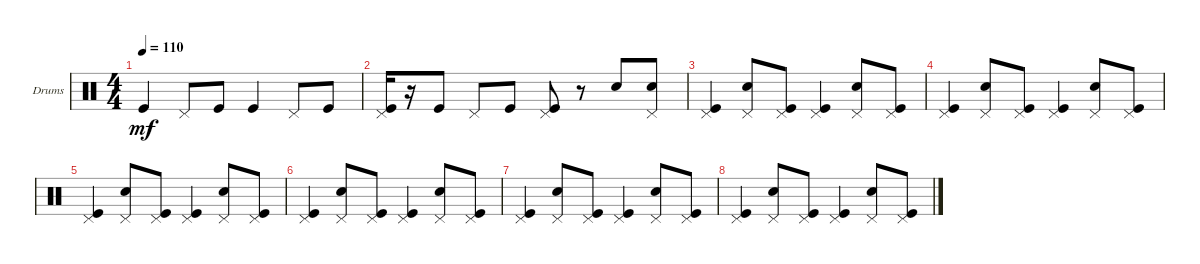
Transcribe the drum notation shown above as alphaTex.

\bracketExtendMode groupsimilarinstruments
\firstSystemTrackNameOrientation horizontal
\otherSystemsTrackNameOrientation horizontal
\track ("Drumkit" "Drums") {instrument percussion}
\staff {score}
\articulation defaults
\ts (4 4)
\tempo 110
\clef neutral
\ks c "Kick (hit)".4{dy mf} "Pedal Hi-Hat (hit)".8 "Kick (hit)".8 "Kick (hit)".4 "Pedal Hi-Hat (hit)".8 "Kick (hit)".8
|
("Kick (hit)" "Pedal Hi-Hat (hit)").16 r.16 "Kick (hit)".8 "Pedal Hi-Hat (hit)".8 "Kick (hit)".8 ("Kick (hit)" "Pedal Hi-Hat (hit)").8 r.8 "Snare (hit) 2".8 ("Pedal Hi-Hat (hit)" "Snare (hit) 2").8 |
("Kick (hit)" "Pedal Hi-Hat (hit)").4 ("Snare (hit) 2" "Pedal Hi-Hat (hit)").8 ("Kick (hit)" "Pedal Hi-Hat (hit)").8 ("Kick (hit)" "Pedal Hi-Hat (hit)").4 ("Snare (hit) 2" "Pedal Hi-Hat (hit)").8 ("Kick (hit)" "Pedal Hi-Hat (hit)").8 |
("Kick (hit)" "Pedal Hi-Hat (hit)").4 ("Snare (hit) 2" "Pedal Hi-Hat (hit)").8 ("Kick (hit)" "Pedal Hi-Hat (hit)").8 ("Kick (hit)" "Pedal Hi-Hat (hit)").4 ("Snare (hit) 2" "Pedal Hi-Hat (hit)").8 ("Kick (hit)" "Pedal Hi-Hat (hit)").8 |
("Kick (hit)" "Pedal Hi-Hat (hit)").4 ("Snare (hit) 2" "Pedal Hi-Hat (hit)").8 ("Kick (hit)" "Pedal Hi-Hat (hit)").8 ("Kick (hit)" "Pedal Hi-Hat (hit)").4 ("Snare (hit) 2" "Pedal Hi-Hat (hit)").8 ("Kick (hit)" "Pedal Hi-Hat (hit)").8 |
("Kick (hit)" "Pedal Hi-Hat (hit)").4 ("Snare (hit) 2" "Pedal Hi-Hat (hit)").8 ("Kick (hit)" "Pedal Hi-Hat (hit)").8 ("Kick (hit)" "Pedal Hi-Hat (hit)").4 ("Snare (hit) 2" "Pedal Hi-Hat (hit)").8 ("Kick (hit)" "Pedal Hi-Hat (hit)").8 |
("Kick (hit)" "Pedal Hi-Hat (hit)").4 ("Snare (hit) 2" "Pedal Hi-Hat (hit)").8 ("Kick (hit)" "Pedal Hi-Hat (hit)").8 ("Kick (hit)" "Pedal Hi-Hat (hit)").4 ("Snare (hit) 2" "Pedal Hi-Hat (hit)").8 ("Kick (hit)" "Pedal Hi-Hat (hit)").8 |
("Kick (hit)" "Pedal Hi-Hat (hit)").4 ("Snare (hit) 2" "Pedal Hi-Hat (hit)").8 ("Kick (hit)" "Pedal Hi-Hat (hit)").8 ("Kick (hit)" "Pedal Hi-Hat (hit)").4 ("Snare (hit) 2" "Pedal Hi-Hat (hit)").8 ("Kick (hit)" "Pedal Hi-Hat (hit)").8
